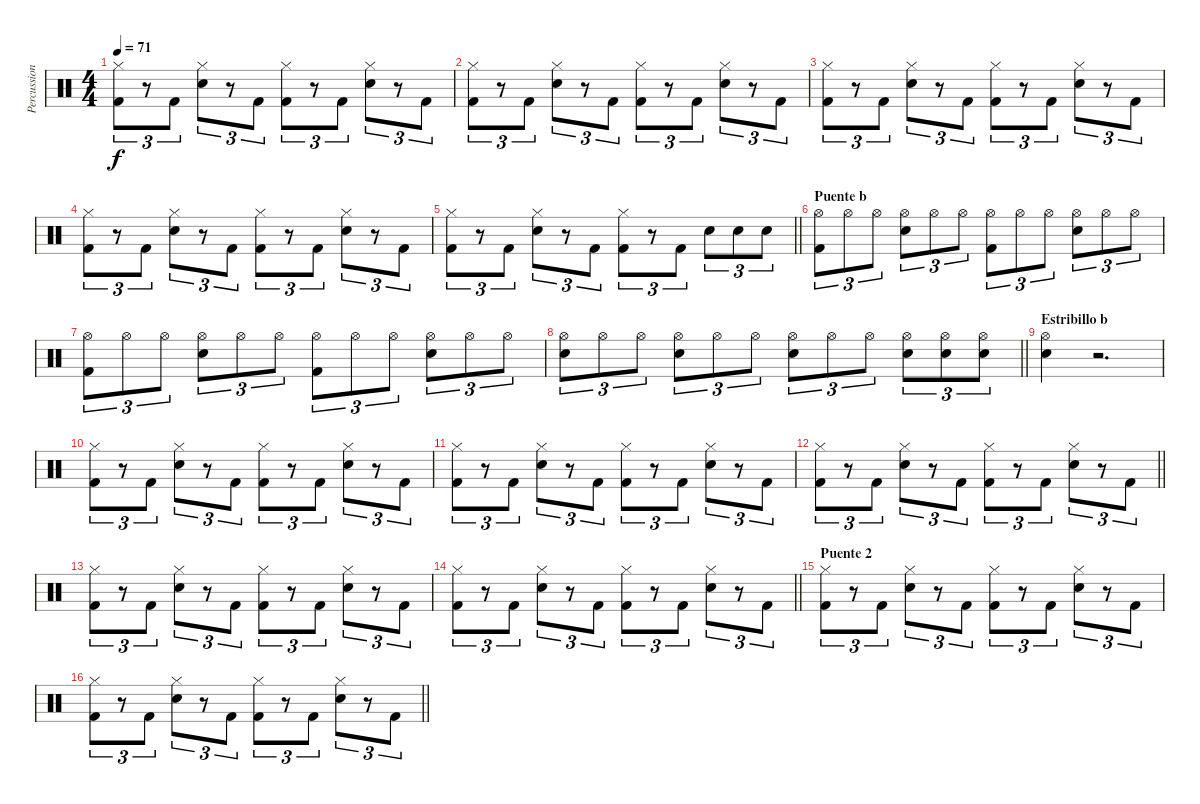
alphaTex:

\track ("Percussion" "Percussion") {instrument percussion}
\staff {score}
\articulation defaults
\ts (4 4)
\tempo 71
\clef neutral
\ks c
("Hi-Hat (closed)" "Kick (hit) 2").8{tu (3 2) dy f} r.8{tu (3 2)} "Kick (hit) 2".8{tu (3 2)} ("Hi-Hat (closed)" "Snare (hit) 2").8{tu (3 2)} r.8{tu (3 2)} "Kick (hit) 2".8{tu (3 2)} ("Hi-Hat (closed)" "Kick (hit) 2").8{tu (3 2)} r.8{tu (3 2)} "Kick (hit) 2".8{tu (3 2)} ("Hi-Hat (closed)" "Snare (hit) 2").8{tu (3 2)} r.8{tu (3 2)} "Kick (hit) 2".8{tu (3 2)} |
("Hi-Hat (closed)" "Kick (hit) 2").8{tu (3 2)} r.8{tu (3 2)} "Kick (hit) 2".8{tu (3 2)} ("Hi-Hat (closed)" "Snare (hit) 2").8{tu (3 2)} r.8{tu (3 2)} "Kick (hit) 2".8{tu (3 2)} ("Hi-Hat (closed)" "Kick (hit) 2").8{tu (3 2)} r.8{tu (3 2)} "Kick (hit) 2".8{tu (3 2)} ("Hi-Hat (closed)" "Snare (hit) 2").8{tu (3 2)} r.8{tu (3 2)} "Kick (hit) 2".8{tu (3 2)} |
("Hi-Hat (closed)" "Kick (hit) 2").8{tu (3 2)} r.8{tu (3 2)} "Kick (hit) 2".8{tu (3 2)} ("Hi-Hat (closed)" "Snare (hit) 2").8{tu (3 2)} r.8{tu (3 2)} "Kick (hit) 2".8{tu (3 2)} ("Hi-Hat (closed)" "Kick (hit) 2").8{tu (3 2)} r.8{tu (3 2)} "Kick (hit) 2".8{tu (3 2)} ("Hi-Hat (closed)" "Snare (hit) 2").8{tu (3 2)} r.8{tu (3 2)} "Kick (hit) 2".8{tu (3 2)} |
("Hi-Hat (closed)" "Kick (hit) 2").8{tu (3 2)} r.8{tu (3 2)} "Kick (hit) 2".8{tu (3 2)} ("Hi-Hat (closed)" "Snare (hit) 2").8{tu (3 2)} r.8{tu (3 2)} "Kick (hit) 2".8{tu (3 2)} ("Hi-Hat (closed)" "Kick (hit) 2").8{tu (3 2)} r.8{tu (3 2)} "Kick (hit) 2".8{tu (3 2)} ("Hi-Hat (closed)" "Snare (hit) 2").8{tu (3 2)} r.8{tu (3 2)} "Kick (hit) 2".8{tu (3 2)} |
\barLineRight lightlight
("Hi-Hat (closed)" "Kick (hit) 2").8{tu (3 2)} r.8{tu (3 2)} "Kick (hit) 2".8{tu (3 2)} ("Hi-Hat (closed)" "Snare (hit) 2").8{tu (3 2)} r.8{tu (3 2)} "Kick (hit) 2".8{tu (3 2)} ("Hi-Hat (closed)" "Kick (hit) 2").8{tu (3 2)} r.8{tu (3 2)} "Kick (hit) 2".8{tu (3 2)} "Snare (hit) 2".8{tu (3 2)} "Snare (hit) 2".8{tu (3 2)} "Snare (hit) 2".8{tu (3 2)} |
\section ("" "Puente b")
("Hi-Hat (open)" "Kick (hit) 2").8{tu (3 2)} "Hi-Hat (open)".8{tu (3 2)} "Hi-Hat (open)".8{tu (3 2)} ("Hi-Hat (open)" "Snare (hit) 2").8{tu (3 2)} "Hi-Hat (open)".8{tu (3 2)} "Hi-Hat (open)".8{tu (3 2)} ("Hi-Hat (open)" "Kick (hit) 2").8{tu (3 2)} "Hi-Hat (open)".8{tu (3 2)} "Hi-Hat (open)".8{tu (3 2)} ("Hi-Hat (open)" "Snare (hit) 2").8{tu (3 2)} "Hi-Hat (open)".8{tu (3 2)} "Hi-Hat (open)".8{tu (3 2)} |
("Hi-Hat (open)" "Kick (hit) 2").8{tu (3 2)} "Hi-Hat (open)".8{tu (3 2)} "Hi-Hat (open)".8{tu (3 2)} ("Hi-Hat (open)" "Snare (hit) 2").8{tu (3 2)} "Hi-Hat (open)".8{tu (3 2)} "Hi-Hat (open)".8{tu (3 2)} ("Hi-Hat (open)" "Kick (hit) 2").8{tu (3 2)} "Hi-Hat (open)".8{tu (3 2)} "Hi-Hat (open)".8{tu (3 2)} ("Hi-Hat (open)" "Snare (hit) 2").8{tu (3 2)} "Hi-Hat (open)".8{tu (3 2)} "Hi-Hat (open)".8{tu (3 2)} |
\barLineRight lightlight
("Hi-Hat (open)" "Snare (hit) 2").8{tu (3 2)} "Hi-Hat (open)".8{tu (3 2)} "Hi-Hat (open)".8{tu (3 2)} ("Hi-Hat (open)" "Snare (hit) 2").8{tu (3 2)} "Hi-Hat (open)".8{tu (3 2)} "Hi-Hat (open)".8{tu (3 2)} ("Hi-Hat (open)" "Snare (hit) 2").8{tu (3 2)} "Hi-Hat (open)".8{tu (3 2)} "Hi-Hat (open)".8{tu (3 2)} ("Hi-Hat (open)" "Snare (hit) 2").8{tu (3 2)} ("Hi-Hat (open)" "Snare (hit) 2").8{tu (3 2)} ("Hi-Hat (open)" "Snare (hit) 2").8{tu (3 2)} |
\section ("" "Estribillo b")
("Hi-Hat (open)" "Snare (hit) 2").4 r.2{d} |
("Hi-Hat (closed)" "Kick (hit) 2").8{tu (3 2)} r.8{tu (3 2)} "Kick (hit) 2".8{tu (3 2)} ("Hi-Hat (closed)" "Snare (hit) 2").8{tu (3 2)} r.8{tu (3 2)} "Kick (hit) 2".8{tu (3 2)} ("Hi-Hat (closed)" "Kick (hit) 2").8{tu (3 2)} r.8{tu (3 2)} "Kick (hit) 2".8{tu (3 2)} ("Hi-Hat (closed)" "Snare (hit) 2").8{tu (3 2)} r.8{tu (3 2)} "Kick (hit) 2".8{tu (3 2)} |
("Hi-Hat (closed)" "Kick (hit) 2").8{tu (3 2)} r.8{tu (3 2)} "Kick (hit) 2".8{tu (3 2)} ("Hi-Hat (closed)" "Snare (hit) 2").8{tu (3 2)} r.8{tu (3 2)} "Kick (hit) 2".8{tu (3 2)} ("Hi-Hat (closed)" "Kick (hit) 2").8{tu (3 2)} r.8{tu (3 2)} "Kick (hit) 2".8{tu (3 2)} ("Hi-Hat (closed)" "Snare (hit) 2").8{tu (3 2)} r.8{tu (3 2)} "Kick (hit) 2".8{tu (3 2)} |
\barLineRight lightlight
("Hi-Hat (closed)" "Kick (hit) 2").8{tu (3 2)} r.8{tu (3 2)} "Kick (hit) 2".8{tu (3 2)} ("Hi-Hat (closed)" "Snare (hit) 2").8{tu (3 2)} r.8{tu (3 2)} "Kick (hit) 2".8{tu (3 2)} ("Hi-Hat (closed)" "Kick (hit) 2").8{tu (3 2)} r.8{tu (3 2)} "Kick (hit) 2".8{tu (3 2)} ("Hi-Hat (closed)" "Snare (hit) 2").8{tu (3 2)} r.8{tu (3 2)} "Kick (hit) 2".8{tu (3 2)} |
("Hi-Hat (closed)" "Kick (hit) 2").8{tu (3 2)} r.8{tu (3 2)} "Kick (hit) 2".8{tu (3 2)} ("Hi-Hat (closed)" "Snare (hit) 2").8{tu (3 2)} r.8{tu (3 2)} "Kick (hit) 2".8{tu (3 2)} ("Hi-Hat (closed)" "Kick (hit) 2").8{tu (3 2)} r.8{tu (3 2)} "Kick (hit) 2".8{tu (3 2)} ("Hi-Hat (closed)" "Snare (hit) 2").8{tu (3 2)} r.8{tu (3 2)} "Kick (hit) 2".8{tu (3 2)} |
\barLineRight lightlight
("Hi-Hat (closed)" "Kick (hit) 2").8{tu (3 2)} r.8{tu (3 2)} "Kick (hit) 2".8{tu (3 2)} ("Hi-Hat (closed)" "Snare (hit) 2").8{tu (3 2)} r.8{tu (3 2)} "Kick (hit) 2".8{tu (3 2)} ("Hi-Hat (closed)" "Kick (hit) 2").8{tu (3 2)} r.8{tu (3 2)} "Kick (hit) 2".8{tu (3 2)} ("Hi-Hat (closed)" "Snare (hit) 2").8{tu (3 2)} r.8{tu (3 2)} "Kick (hit) 2".8{tu (3 2)} |
\section ("" "Puente 2")
("Hi-Hat (closed)" "Kick (hit) 2").8{tu (3 2)} r.8{tu (3 2)} "Kick (hit) 2".8{tu (3 2)} ("Hi-Hat (closed)" "Snare (hit) 2").8{tu (3 2)} r.8{tu (3 2)} "Kick (hit) 2".8{tu (3 2)} ("Hi-Hat (closed)" "Kick (hit) 2").8{tu (3 2)} r.8{tu (3 2)} "Kick (hit) 2".8{tu (3 2)} ("Hi-Hat (closed)" "Snare (hit) 2").8{tu (3 2)} r.8{tu (3 2)} "Kick (hit) 2".8{tu (3 2)} |
\barLineRight lightlight
("Hi-Hat (closed)" "Kick (hit) 2").8{tu (3 2)} r.8{tu (3 2)} "Kick (hit) 2".8{tu (3 2)} ("Hi-Hat (closed)" "Snare (hit) 2").8{tu (3 2)} r.8{tu (3 2)} "Kick (hit) 2".8{tu (3 2)} ("Hi-Hat (closed)" "Kick (hit) 2").8{tu (3 2)} r.8{tu (3 2)} "Kick (hit) 2".8{tu (3 2)} ("Hi-Hat (closed)" "Snare (hit) 2").8{tu (3 2)} r.8{tu (3 2)} "Kick (hit) 2".8{tu (3 2)}
